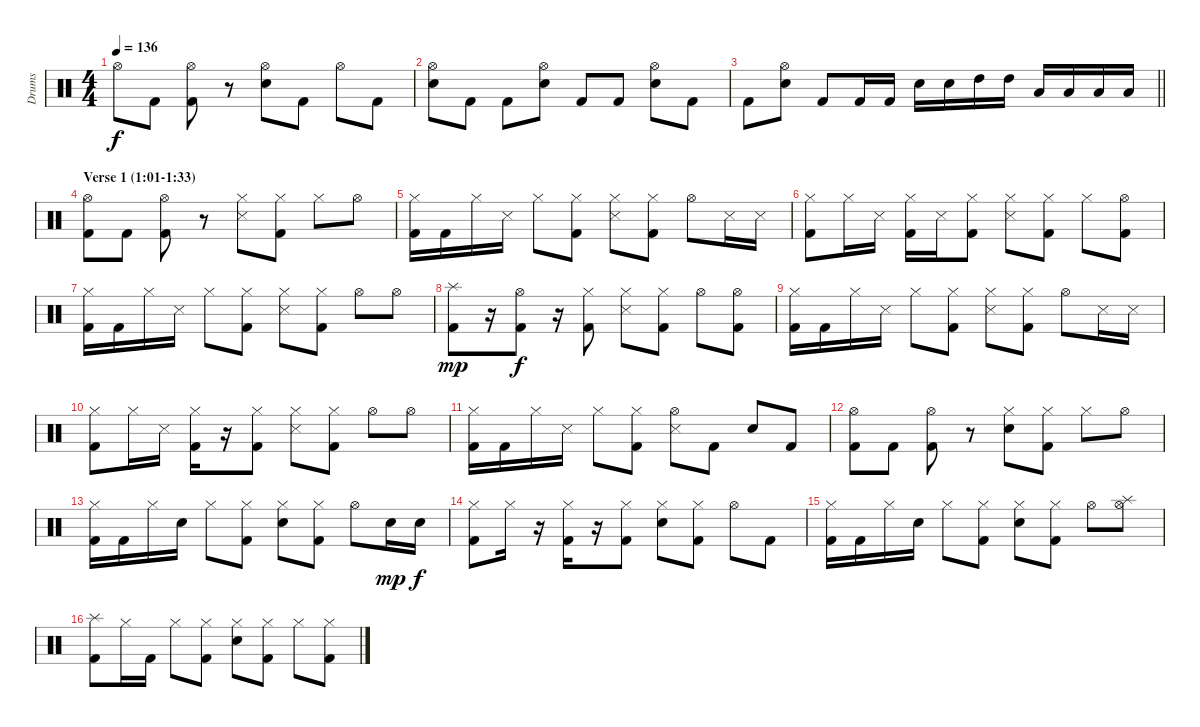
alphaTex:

\track ("Drums" "Drums") {instrument percussion}
\staff {score}
\articulation defaults
\ts (4 4)
\tempo 136
\clef neutral
\ks c "Hi-Hat (open)".8{dy f} "Kick (hit) 2".8
("Kick (hit) 2" "Hi-Hat (open)").8 r.8 ("Snare (hit) 2" "Hi-Hat (open)").8 "Kick (hit) 2".8 "Hi-Hat (open)".8 "Kick (hit) 2".8 |
("Hi-Hat (open)" "Snare (hit) 2").8 "Kick (hit) 2".8 "Kick (hit) 2".8 ("Hi-Hat (open)" "Snare (hit) 2").8 "Kick (hit) 2".8 "Kick (hit) 2".8 ("Hi-Hat (open)" "Snare (hit) 2").8 "Kick (hit) 2".8 |
\barLineRight lightlight "Kick (hit) 2".8
("Hi-Hat (open)" "Snare (hit) 2").8 "Kick (hit) 2".8 "Kick (hit) 2".16 "Kick (hit) 2".16 "Snare (hit) 2".16 "Snare (hit) 2".16 "High Tom (hit)".16 "High Tom (hit)".16 "Low Tom (hit)".16 "Low Tom (hit)".16 "Low Floor Tom (hit)".16 "Low Floor Tom (hit)".16 |
\section ("" "Verse 1 (1:01-1:33)")
("Hi-Hat (open)" "Kick (hit) 2").8 "Kick (hit) 2".8 ("Hi-Hat (open)" "Kick (hit) 2").8 r.8 ("Hi-Hat (closed)" "Snare (side stick) 3").8 ("Hi-Hat (closed)" "Kick (hit) 2").8 "Hi-Hat (closed)".8 "Hi-Hat (open)".8 |
("Kick (hit) 2" "Hi-Hat (closed)").16 "Kick (hit) 2".16 "Hi-Hat (closed)".16 "Snare (side stick) 3".16 "Hi-Hat (closed)".8 ("Kick (hit) 2" "Hi-Hat (closed)").8 ("Snare (side stick) 3" "Hi-Hat (closed)").8 ("Kick (hit) 2" "Hi-Hat (closed)").8 "Hi-Hat (open)".8 "Snare (side stick) 3".16 "Snare (side stick) 3".16 |
("Hi-Hat (closed)" "Kick (hit) 2").8 "Hi-Hat (closed)".16 "Snare (side stick) 3".16 ("Hi-Hat (closed)" "Kick (hit) 2").16 "Snare (side stick) 3".16 ("Hi-Hat (closed)" "Kick (hit) 2").8 ("Hi-Hat (closed)" "Snare (side stick) 3").8 ("Hi-Hat (closed)" "Kick (hit) 2").8 "Hi-Hat (closed)".8 ("Hi-Hat (open)" "Kick (hit) 2").8 |
("Hi-Hat (closed)" "Kick (hit) 2").16 "Kick (hit) 2".16 "Hi-Hat (closed)".16 "Snare (side stick) 3".16 "Hi-Hat (closed)".8 ("Hi-Hat (closed)" "Kick (hit) 2").8 ("Hi-Hat (closed)" "Snare (side stick) 3").8 ("Hi-Hat (closed)" "Kick (hit) 2").8 "Hi-Hat (open)".8 "Hi-Hat (open)".8 |
("Splash (hit)" "Kick (hit) 2").8{dy mp} r.16 ("Hi-Hat (open)" "Kick (hit) 2").8{dy f} r.16 ("Hi-Hat (closed)" "Kick (hit) 2").8 ("Hi-Hat (closed)" "Snare (side stick) 3").8 ("Hi-Hat (closed)" "Kick (hit) 2").8 "Hi-Hat (open)".8 ("Hi-Hat (open)" "Kick (hit) 2").8 |
("Kick (hit) 2" "Hi-Hat (closed)").16 "Kick (hit) 2".16 "Hi-Hat (closed)".16 "Snare (side stick) 3".16 "Hi-Hat (closed)".8 ("Kick (hit) 2" "Hi-Hat (closed)").8 ("Snare (side stick) 3" "Hi-Hat (closed)").8 ("Kick (hit) 2" "Hi-Hat (closed)").8 "Hi-Hat (open)".8 "Snare (side stick) 3".16 "Snare (side stick) 3".16 |
("Hi-Hat (closed)" "Kick (hit) 2").8 "Hi-Hat (closed)".16 "Snare (side stick) 3".16 ("Hi-Hat (closed)" "Kick (hit) 2").16 r.16 ("Hi-Hat (closed)" "Kick (hit) 2").8 ("Hi-Hat (closed)" "Snare (side stick) 3").8 ("Hi-Hat (closed)" "Kick (hit) 2").8 "Hi-Hat (open)".8 "Hi-Hat (open)".8 |
("Hi-Hat (closed)" "Kick (hit) 2").16 "Kick (hit) 2".16 "Hi-Hat (closed)".16 "Snare (side stick) 3".16 "Hi-Hat (closed)".8 ("Hi-Hat (closed)" "Kick (hit) 2").8 ("Hi-Hat (open)" "Snare (side stick) 3").8 "Kick (hit) 2".8 "Snare (hit) 2".8 "Kick (hit) 2".8 |
("Hi-Hat (open)" "Kick (hit) 2").8 "Kick (hit) 2".8 ("Hi-Hat (open)" "Kick (hit) 2").8 r.8 ("Hi-Hat (closed)" "Snare (hit) 2").8 ("Hi-Hat (closed)" "Kick (hit) 2").8 "Hi-Hat (closed)".8 "Hi-Hat (open)".8 |
("Kick (hit) 2" "Hi-Hat (closed)").16 "Kick (hit) 2".16 "Hi-Hat (closed)".16 "Snare (hit) 2".16 "Hi-Hat (closed)".8 ("Kick (hit) 2" "Hi-Hat (closed)").8 ("Snare (hit) 2" "Hi-Hat (closed)").8 ("Kick (hit) 2" "Hi-Hat (closed)").8 "Hi-Hat (open)".8 "Snare (hit) 2".16{dy mp} "Snare (hit) 2".16{dy f} |
("Hi-Hat (closed)" "Kick (hit) 2").8 "Hi-Hat (closed)".16 r.16 ("Hi-Hat (closed)" "Kick (hit) 2").16 r.16 ("Hi-Hat (closed)" "Kick (hit) 2").8 ("Hi-Hat (closed)" "Snare (hit) 2").8 ("Hi-Hat (closed)" "Kick (hit) 2").8 "Hi-Hat (open)".8 "Kick (hit) 2".8 |
("Hi-Hat (closed)" "Kick (hit) 2").16 "Kick (hit) 2".16 "Hi-Hat (closed)".16 "Snare (hit) 2".16 "Hi-Hat (closed)".8 ("Hi-Hat (closed)" "Kick (hit) 2").8 ("Hi-Hat (closed)" "Snare (hit) 2").8 ("Hi-Hat (closed)" "Kick (hit) 2").8 "Hi-Hat (open)".8 ("Hi-Hat (open)" "Splash (hit)").8 |
("Splash (hit)" "Kick (hit) 2").8 "Hi-Hat (closed)".16 "Kick (hit) 2".16 "Hi-Hat (closed)".8 ("Hi-Hat (closed)" "Kick (hit) 2").8 ("Hi-Hat (closed)" "Snare (hit) 2").8 ("Hi-Hat (closed)" "Kick (hit) 2").8 "Hi-Hat (closed)".8 ("Hi-Hat (closed)" "Kick (hit) 2").8
